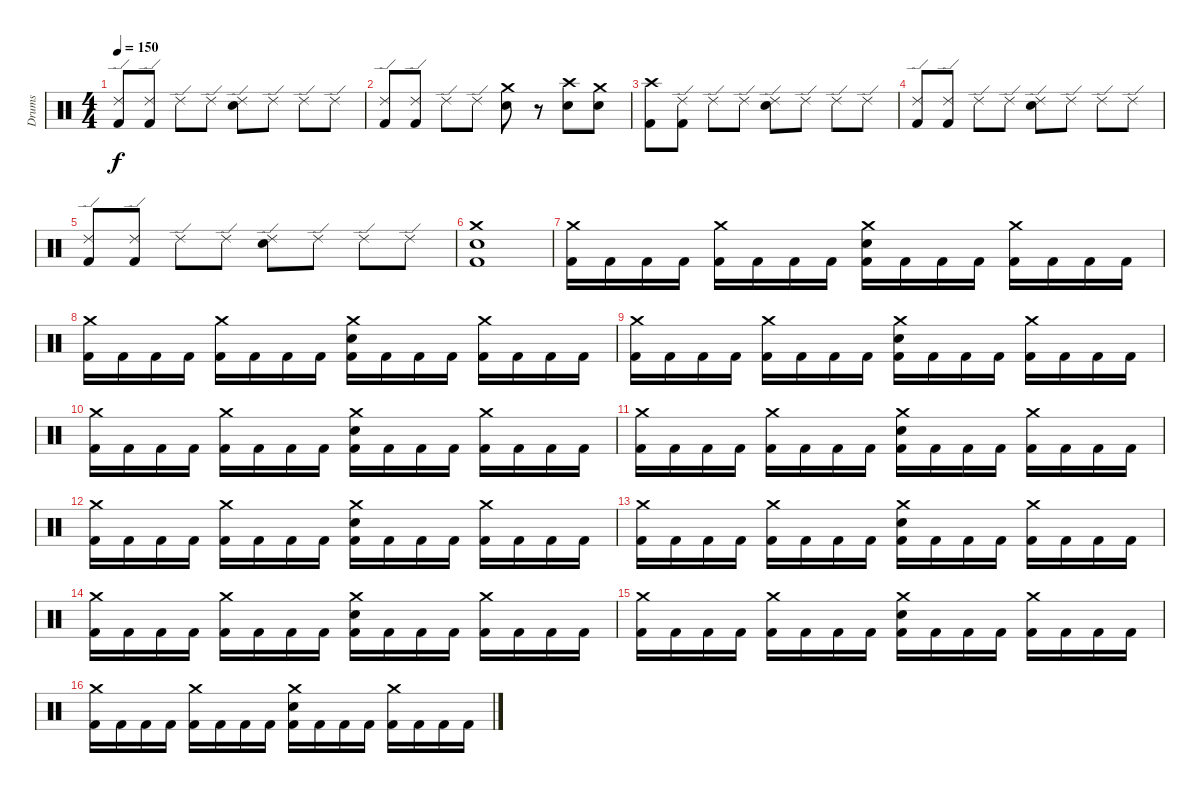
\track ("Drums" "Drums") {instrument percussion}
\staff {score}
\articulation defaults
\ts (4 4)
\tempo 150
\clef neutral
\ks c
("Ride (edge) 2" "Kick (hit) 2").8{dy f} ("Ride (edge) 2" "Kick (hit) 2").8 "Ride (edge) 2".8 "Ride (edge) 2".8 ("Ride (edge) 2" "Snare (hit) 2").8 "Ride (edge) 2".8 "Ride (edge) 2".8 "Ride (edge) 2".8 |
("Ride (edge) 2" "Kick (hit) 2").8 ("Ride (edge) 2" "Kick (hit) 2").8 "Ride (edge) 2".8 "Ride (edge) 2".8 ("Crash medium (hit)" "Snare (hit) 2").8 r.8 ("Crash high (hit)" "Snare (hit) 2").8 ("Crash medium (hit)" "Snare (hit) 2").8 |
("Crash high (hit)" "Kick (hit) 2").8 ("Ride (edge) 2" "Kick (hit) 2").8 "Ride (edge) 2".8 "Ride (edge) 2".8 ("Ride (edge) 2" "Snare (hit) 2").8 "Ride (edge) 2".8 "Ride (edge) 2".8 "Ride (edge) 2".8 |
("Ride (edge) 2" "Kick (hit) 2").8 ("Ride (edge) 2" "Kick (hit) 2").8 "Ride (edge) 2".8 "Ride (edge) 2".8 ("Ride (edge) 2" "Snare (hit) 2").8 "Ride (edge) 2".8 "Ride (edge) 2".8 "Ride (edge) 2".8 |
("Ride (edge) 2" "Kick (hit) 2").8 ("Ride (edge) 2" "Kick (hit) 2").8 "Ride (edge) 2".8 "Ride (edge) 2".8 ("Ride (edge) 2" "Snare (hit) 2").8 "Ride (edge) 2".8 "Ride (edge) 2".8 "Ride (edge) 2".8 |
("Crash medium (hit)" "Snare (hit) 2" "Kick (hit) 2").1 |
("Crash medium (hit)" "Kick (hit) 2").16 "Kick (hit) 2".16 "Kick (hit) 2".16 "Kick (hit) 2".16 ("Crash medium (hit)" "Kick (hit) 2").16 "Kick (hit) 2".16 "Kick (hit) 2".16 "Kick (hit) 2".16 ("Crash medium (hit)" "Snare (hit) 2" "Kick (hit) 2").16 "Kick (hit) 2".16 "Kick (hit) 2".16 "Kick (hit) 2".16 ("Crash medium (hit)" "Kick (hit) 2").16 "Kick (hit) 2".16 "Kick (hit) 2".16 "Kick (hit) 2".16 |
("Crash medium (hit)" "Kick (hit) 2").16 "Kick (hit) 2".16 "Kick (hit) 2".16 "Kick (hit) 2".16 ("Crash medium (hit)" "Kick (hit) 2").16 "Kick (hit) 2".16 "Kick (hit) 2".16 "Kick (hit) 2".16 ("Crash medium (hit)" "Snare (hit) 2" "Kick (hit) 2").16 "Kick (hit) 2".16 "Kick (hit) 2".16 "Kick (hit) 2".16 ("Crash medium (hit)" "Kick (hit) 2").16 "Kick (hit) 2".16 "Kick (hit) 2".16 "Kick (hit) 2".16 |
("Crash medium (hit)" "Kick (hit) 2").16 "Kick (hit) 2".16 "Kick (hit) 2".16 "Kick (hit) 2".16 ("Crash medium (hit)" "Kick (hit) 2").16 "Kick (hit) 2".16 "Kick (hit) 2".16 "Kick (hit) 2".16 ("Crash medium (hit)" "Snare (hit) 2" "Kick (hit) 2").16 "Kick (hit) 2".16 "Kick (hit) 2".16 "Kick (hit) 2".16 ("Crash medium (hit)" "Kick (hit) 2").16 "Kick (hit) 2".16 "Kick (hit) 2".16 "Kick (hit) 2".16 |
("Crash medium (hit)" "Kick (hit) 2").16 "Kick (hit) 2".16 "Kick (hit) 2".16 "Kick (hit) 2".16 ("Crash medium (hit)" "Kick (hit) 2").16 "Kick (hit) 2".16 "Kick (hit) 2".16 "Kick (hit) 2".16 ("Crash medium (hit)" "Snare (hit) 2" "Kick (hit) 2").16 "Kick (hit) 2".16 "Kick (hit) 2".16 "Kick (hit) 2".16 ("Crash medium (hit)" "Kick (hit) 2").16 "Kick (hit) 2".16 "Kick (hit) 2".16 "Kick (hit) 2".16 |
("Crash medium (hit)" "Kick (hit) 2").16 "Kick (hit) 2".16 "Kick (hit) 2".16 "Kick (hit) 2".16 ("Crash medium (hit)" "Kick (hit) 2").16 "Kick (hit) 2".16 "Kick (hit) 2".16 "Kick (hit) 2".16 ("Crash medium (hit)" "Snare (hit) 2" "Kick (hit) 2").16 "Kick (hit) 2".16 "Kick (hit) 2".16 "Kick (hit) 2".16 ("Crash medium (hit)" "Kick (hit) 2").16 "Kick (hit) 2".16 "Kick (hit) 2".16 "Kick (hit) 2".16 |
("Crash medium (hit)" "Kick (hit) 2").16 "Kick (hit) 2".16 "Kick (hit) 2".16 "Kick (hit) 2".16 ("Crash medium (hit)" "Kick (hit) 2").16 "Kick (hit) 2".16 "Kick (hit) 2".16 "Kick (hit) 2".16 ("Crash medium (hit)" "Snare (hit) 2" "Kick (hit) 2").16 "Kick (hit) 2".16 "Kick (hit) 2".16 "Kick (hit) 2".16 ("Crash medium (hit)" "Kick (hit) 2").16 "Kick (hit) 2".16 "Kick (hit) 2".16 "Kick (hit) 2".16 |
("Crash medium (hit)" "Kick (hit) 2").16 "Kick (hit) 2".16 "Kick (hit) 2".16 "Kick (hit) 2".16 ("Crash medium (hit)" "Kick (hit) 2").16 "Kick (hit) 2".16 "Kick (hit) 2".16 "Kick (hit) 2".16 ("Crash medium (hit)" "Snare (hit) 2" "Kick (hit) 2").16 "Kick (hit) 2".16 "Kick (hit) 2".16 "Kick (hit) 2".16 ("Crash medium (hit)" "Kick (hit) 2").16 "Kick (hit) 2".16 "Kick (hit) 2".16 "Kick (hit) 2".16 |
("Crash medium (hit)" "Kick (hit) 2").16 "Kick (hit) 2".16 "Kick (hit) 2".16 "Kick (hit) 2".16 ("Crash medium (hit)" "Kick (hit) 2").16 "Kick (hit) 2".16 "Kick (hit) 2".16 "Kick (hit) 2".16 ("Crash medium (hit)" "Snare (hit) 2" "Kick (hit) 2").16 "Kick (hit) 2".16 "Kick (hit) 2".16 "Kick (hit) 2".16 ("Crash medium (hit)" "Kick (hit) 2").16 "Kick (hit) 2".16 "Kick (hit) 2".16 "Kick (hit) 2".16 |
("Crash medium (hit)" "Kick (hit) 2").16 "Kick (hit) 2".16 "Kick (hit) 2".16 "Kick (hit) 2".16 ("Crash medium (hit)" "Kick (hit) 2").16 "Kick (hit) 2".16 "Kick (hit) 2".16 "Kick (hit) 2".16 ("Crash medium (hit)" "Snare (hit) 2" "Kick (hit) 2").16 "Kick (hit) 2".16 "Kick (hit) 2".16 "Kick (hit) 2".16 ("Crash medium (hit)" "Kick (hit) 2").16 "Kick (hit) 2".16 "Kick (hit) 2".16 "Kick (hit) 2".16 |
("Crash medium (hit)" "Kick (hit) 2").16 "Kick (hit) 2".16 "Kick (hit) 2".16 "Kick (hit) 2".16 ("Crash medium (hit)" "Kick (hit) 2").16 "Kick (hit) 2".16 "Kick (hit) 2".16 "Kick (hit) 2".16 ("Crash medium (hit)" "Snare (hit) 2" "Kick (hit) 2").16 "Kick (hit) 2".16 "Kick (hit) 2".16 "Kick (hit) 2".16 ("Crash medium (hit)" "Kick (hit) 2").16 "Kick (hit) 2".16 "Kick (hit) 2".16 "Kick (hit) 2".16
